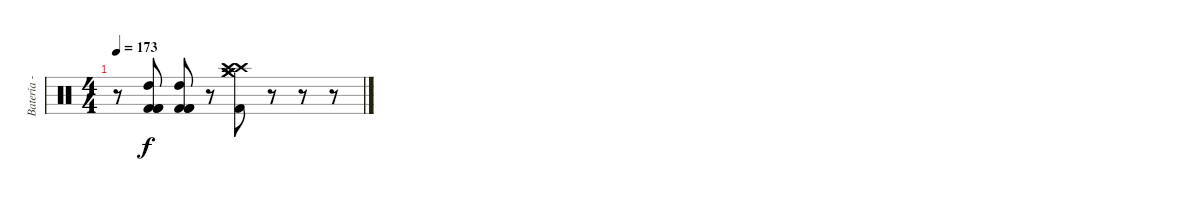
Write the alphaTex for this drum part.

\track ("Bateria - Larzon " "Bateria - ") {instrument percussion}
\staff {score}
\articulation defaults
\ts (4 4)
\tempo 173
\clef neutral
\ks c
r.8{dy f} ("High Tom (hit)" "Kick (hit) 2" "Kick (hit) 2" "Kick (hit) 2").8 ("High Tom (hit)" "Kick (hit) 2" "Kick (hit) 2" "Kick (hit) 2").8 r.8 ("Crash high (hit)" "Crash medium (hit)" "Crash medium (hit)" "Crash high (hit)" "Kick (hit) 2").8 r.8 r.8 r.8
